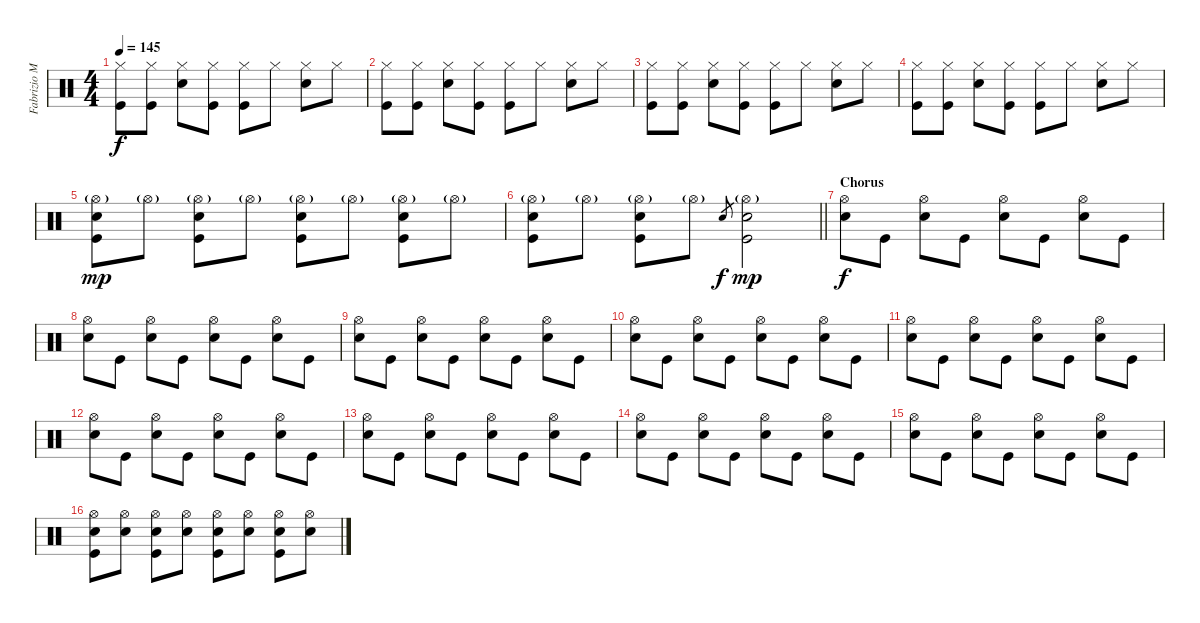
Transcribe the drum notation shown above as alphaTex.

\track ("Fabrizio Moretti" "Fabrizio M") {instrument percussion}
\staff {score}
\articulation defaults
\ts (4 4)
\tempo 145
\clef neutral
\ks c
("Hi-Hat (closed)" "Kick (hit)").8{dy f} ("Hi-Hat (closed)" "Kick (hit)").8 ("Hi-Hat (closed)" "Snare (hit) 2").8 ("Hi-Hat (closed)" "Kick (hit)").8 ("Hi-Hat (closed)" "Kick (hit)").8 "Hi-Hat (closed)".8 ("Hi-Hat (closed)" "Snare (hit) 2").8 "Hi-Hat (closed)".8 |
("Hi-Hat (closed)" "Kick (hit)").8 ("Hi-Hat (closed)" "Kick (hit)").8 ("Hi-Hat (closed)" "Snare (hit) 2").8 ("Hi-Hat (closed)" "Kick (hit)").8 ("Hi-Hat (closed)" "Kick (hit)").8 "Hi-Hat (closed)".8 ("Hi-Hat (closed)" "Snare (hit) 2").8 "Hi-Hat (closed)".8 |
("Hi-Hat (closed)" "Kick (hit)").8 ("Hi-Hat (closed)" "Kick (hit)").8 ("Hi-Hat (closed)" "Snare (hit) 2").8 ("Hi-Hat (closed)" "Kick (hit)").8 ("Hi-Hat (closed)" "Kick (hit)").8 "Hi-Hat (closed)".8 ("Hi-Hat (closed)" "Snare (hit) 2").8 "Hi-Hat (closed)".8 |
("Hi-Hat (closed)" "Kick (hit)").8 ("Hi-Hat (closed)" "Kick (hit)").8 ("Hi-Hat (closed)" "Snare (hit) 2").8 ("Hi-Hat (closed)" "Kick (hit)").8 ("Hi-Hat (closed)" "Kick (hit)").8 "Hi-Hat (closed)".8 ("Hi-Hat (closed)" "Snare (hit) 2").8 "Hi-Hat (closed)".8 |
("Hi-Hat (open)"{g} "Snare (hit) 2" "Kick (hit)").8{dy mp} "Hi-Hat (open)"{g}.8 ("Hi-Hat (open)"{g} "Snare (hit) 2" "Kick (hit)").8 "Hi-Hat (open)"{g}.8 ("Hi-Hat (open)"{g} "Snare (hit) 2" "Kick (hit)").8 "Hi-Hat (open)"{g}.8 ("Hi-Hat (open)"{g} "Snare (hit) 2" "Kick (hit)").8 "Hi-Hat (open)"{g}.8 |
\barLineRight lightlight
("Hi-Hat (open)"{g} "Snare (hit) 2" "Kick (hit)").8 "Hi-Hat (open)"{g}.8 ("Hi-Hat (open)"{g} "Snare (hit) 2" "Kick (hit)").8 "Hi-Hat (open)"{g}.8 "Snare (hit) 2".8{gr dy f} ("Hi-Hat (open)"{g} "Snare (hit) 2" "Kick (hit)").2{dy mp} |
\section ("" "Chorus")
("Hi-Hat (open)" "Snare (hit) 2").8{dy f} "Kick (hit)".8 ("Hi-Hat (open)" "Snare (hit) 2").8 "Kick (hit)".8 ("Hi-Hat (open)" "Snare (hit) 2").8 "Kick (hit)".8 ("Hi-Hat (open)" "Snare (hit) 2").8 "Kick (hit)".8 |
("Hi-Hat (open)" "Snare (hit) 2").8 "Kick (hit)".8 ("Hi-Hat (open)" "Snare (hit) 2").8 "Kick (hit)".8 ("Hi-Hat (open)" "Snare (hit) 2").8 "Kick (hit)".8 ("Hi-Hat (open)" "Snare (hit) 2").8 "Kick (hit)".8 |
("Hi-Hat (open)" "Snare (hit) 2").8 "Kick (hit)".8 ("Hi-Hat (open)" "Snare (hit) 2").8 "Kick (hit)".8 ("Hi-Hat (open)" "Snare (hit) 2").8 "Kick (hit)".8 ("Hi-Hat (open)" "Snare (hit) 2").8 "Kick (hit)".8 |
("Hi-Hat (open)" "Snare (hit) 2").8 "Kick (hit)".8 ("Hi-Hat (open)" "Snare (hit) 2").8 "Kick (hit)".8 ("Hi-Hat (open)" "Snare (hit) 2").8 "Kick (hit)".8 ("Hi-Hat (open)" "Snare (hit) 2").8 "Kick (hit)".8 |
("Hi-Hat (open)" "Snare (hit) 2").8 "Kick (hit)".8 ("Hi-Hat (open)" "Snare (hit) 2").8 "Kick (hit)".8 ("Hi-Hat (open)" "Snare (hit) 2").8 "Kick (hit)".8 ("Hi-Hat (open)" "Snare (hit) 2").8 "Kick (hit)".8 |
("Hi-Hat (open)" "Snare (hit) 2").8 "Kick (hit)".8 ("Hi-Hat (open)" "Snare (hit) 2").8 "Kick (hit)".8 ("Hi-Hat (open)" "Snare (hit) 2").8 "Kick (hit)".8 ("Hi-Hat (open)" "Snare (hit) 2").8 "Kick (hit)".8 |
("Hi-Hat (open)" "Snare (hit) 2").8 "Kick (hit)".8 ("Hi-Hat (open)" "Snare (hit) 2").8 "Kick (hit)".8 ("Hi-Hat (open)" "Snare (hit) 2").8 "Kick (hit)".8 ("Hi-Hat (open)" "Snare (hit) 2").8 "Kick (hit)".8 |
("Hi-Hat (open)" "Snare (hit) 2").8 "Kick (hit)".8 ("Hi-Hat (open)" "Snare (hit) 2").8 "Kick (hit)".8 ("Hi-Hat (open)" "Snare (hit) 2").8 "Kick (hit)".8 ("Hi-Hat (open)" "Snare (hit) 2").8 "Kick (hit)".8 |
("Hi-Hat (open)" "Snare (hit) 2").8 "Kick (hit)".8 ("Hi-Hat (open)" "Snare (hit) 2").8 "Kick (hit)".8 ("Hi-Hat (open)" "Snare (hit) 2").8 "Kick (hit)".8 ("Hi-Hat (open)" "Snare (hit) 2").8 "Kick (hit)".8 |
("Hi-Hat (open)" "Snare (hit) 2" "Kick (hit)").8 ("Hi-Hat (open)" "Snare (hit) 2").8 ("Hi-Hat (open)" "Snare (hit) 2" "Kick (hit)").8 ("Hi-Hat (open)" "Snare (hit) 2").8 ("Hi-Hat (open)" "Snare (hit) 2" "Kick (hit)").8 ("Hi-Hat (open)" "Snare (hit) 2").8 ("Hi-Hat (open)" "Snare (hit) 2" "Kick (hit)").8 ("Hi-Hat (open)" "Snare (hit) 2").8
